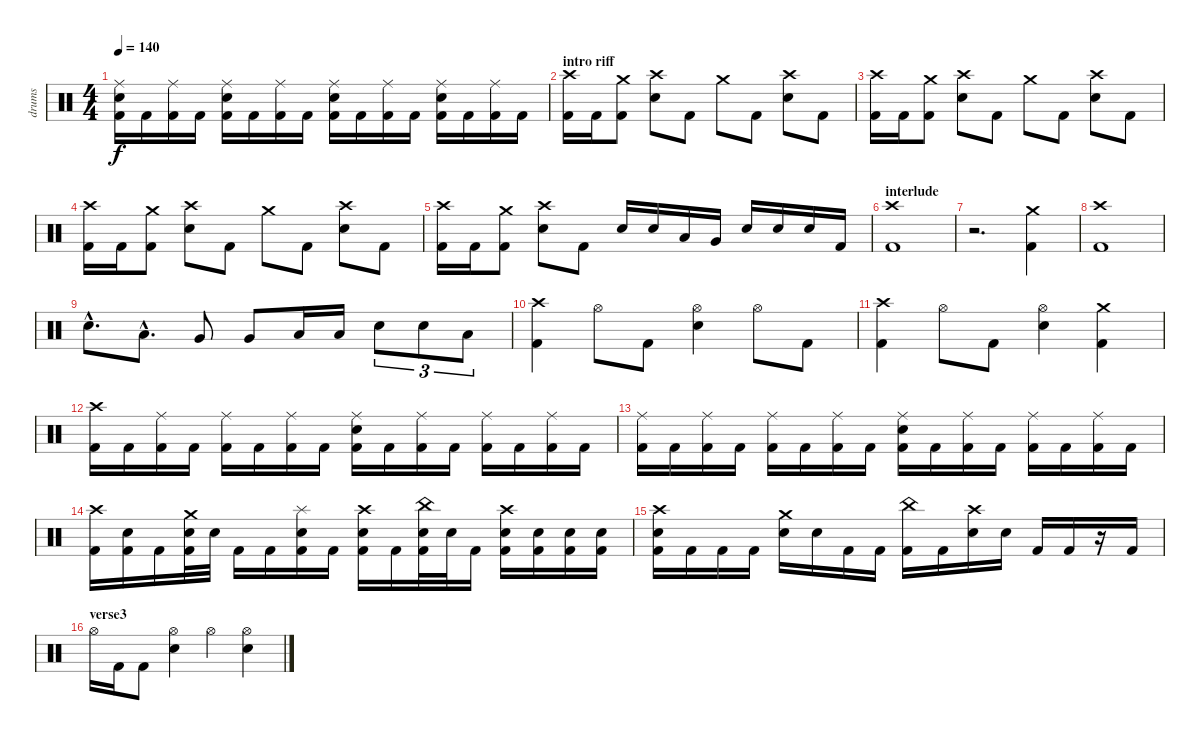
\track ("drums" "drums") {instrument percussion}
\staff {score}
\articulation defaults
\ts (4 4)
\tempo 140
\clef neutral
\ks c
("Ride (middle)" "Electric Snare (hit)" "Kick (hit) 2").16{dy f} "Kick (hit) 2".16 ("Ride (middle)" "Kick (hit) 2").16 "Kick (hit) 2".16 ("Ride (middle)" "Electric Snare (hit)" "Kick (hit) 2").16 "Kick (hit) 2".16 ("Ride (middle)" "Kick (hit) 2").16 "Kick (hit) 2".16 ("Ride (middle)" "Electric Snare (hit)" "Kick (hit) 2").16 "Kick (hit) 2".16 ("Ride (middle)" "Kick (hit) 2").16 "Kick (hit) 2".16 ("Ride (middle)" "Electric Snare (hit)" "Kick (hit) 2").16 "Kick (hit) 2".16 ("Ride (middle)" "Kick (hit) 2").16 "Kick (hit) 2".16 |
\section ("" "intro riff")
("Crash high (hit)" "Kick (hit) 2").16 "Kick (hit) 2".16 ("Crash medium (hit)" "Kick (hit) 2").8 ("Crash high (hit)" "Electric Snare (hit)").8 "Kick (hit) 2".8 "Crash medium (hit)".8 "Kick (hit) 2".8 ("Crash high (hit)" "Electric Snare (hit)").8 "Kick (hit) 2".8 |
("Crash high (hit)" "Kick (hit) 2").16 "Kick (hit) 2".16 ("Crash medium (hit)" "Kick (hit) 2").8 ("Crash high (hit)" "Electric Snare (hit)").8 "Kick (hit) 2".8 "Crash medium (hit)".8 "Kick (hit) 2".8 ("Crash high (hit)" "Electric Snare (hit)").8 "Kick (hit) 2".8 |
("Crash high (hit)" "Kick (hit) 2").16 "Kick (hit) 2".16 ("Crash medium (hit)" "Kick (hit) 2").8 ("Crash high (hit)" "Electric Snare (hit)").8 "Kick (hit) 2".8 "Crash medium (hit)".8 "Kick (hit) 2".8 ("Crash high (hit)" "Electric Snare (hit)").8 "Kick (hit) 2".8 |
("Crash high (hit)" "Kick (hit) 2").16 "Kick (hit) 2".16 ("Crash medium (hit)" "Kick (hit) 2").8 ("Crash high (hit)" "Electric Snare (hit)").8 "Kick (hit) 2".8 "Electric Snare (hit)".16 "Electric Snare (hit)".16 "Low Tom (hit)".16 "Very Low Tom (hit)".16 "Electric Snare (hit)".16 "Electric Snare (hit)".16 "Electric Snare (hit)".16 "Kick (hit) 2".16 |
\section ("" "interlude")
("Crash high (hit)" "Kick (hit) 2").1 |
r.2{d} ("Crash medium (hit)" "Kick (hit) 2").4 |
("Crash high (hit)" "Kick (hit) 2").1 |
"Electric Snare (hit)"{hac}.8{d} "Low Tom (hit)"{hac}.8{d} "Very Low Tom (hit)".8 "Very Low Tom (hit)".8 "Low Tom (hit)".16 "Low Tom (hit)".16 "Electric Snare (hit)".8{tu (3 2)} "Electric Snare (hit)".8{tu (3 2)} "Low Tom (hit)".8{tu (3 2)} |
("Crash high (hit)" "Kick (hit) 2").4 "Hi-Hat (open)".8 "Kick (hit) 2".8 ("Hi-Hat (open)" "Electric Snare (hit)").4 "Hi-Hat (open)".8 "Kick (hit) 2".8 |
("Crash high (hit)" "Kick (hit) 2").4 "Hi-Hat (open)".8 "Kick (hit) 2".8 ("Hi-Hat (open)" "Electric Snare (hit)").4 ("Crash medium (hit)" "Kick (hit) 2").4 |
("Crash high (hit)" "Kick (hit) 2").16 "Kick (hit) 2".16 ("Ride (middle)" "Kick (hit) 2").16 "Kick (hit) 2".16 ("Ride (middle)" "Kick (hit) 2").16 "Kick (hit) 2".16 ("Ride (middle)" "Kick (hit) 2").16 "Kick (hit) 2".16 ("Ride (middle)" "Electric Snare (hit)" "Kick (hit) 2").16 "Kick (hit) 2".16 ("Ride (middle)" "Kick (hit) 2").16 "Kick (hit) 2".16 ("Ride (middle)" "Kick (hit) 2").16 "Kick (hit) 2".16 ("Ride (middle)" "Kick (hit) 2").16 "Kick (hit) 2".16 |
("Ride (middle)" "Kick (hit) 2").16 "Kick (hit) 2".16 ("Ride (middle)" "Kick (hit) 2").16 "Kick (hit) 2".16 ("Ride (middle)" "Kick (hit) 2").16 "Kick (hit) 2".16 ("Ride (middle)" "Kick (hit) 2").16 "Kick (hit) 2".16 ("Ride (middle)" "Electric Snare (hit)" "Kick (hit) 2").16 "Kick (hit) 2".16 ("Ride (middle)" "Kick (hit) 2").16 "Kick (hit) 2".16 ("Ride (middle)" "Kick (hit) 2").16 "Kick (hit) 2".16 ("Ride (middle)" "Kick (hit) 2").16 "Kick (hit) 2".16 |
("Crash high (hit)" "Kick (hit) 2").16 ("Electric Snare (hit)" "Kick (hit) 2").16 "Kick (hit) 2".16 ("Crash medium (hit)" "Electric Snare (hit)" "Kick (hit) 2").32 "Electric Snare (hit)".32 "Kick (hit) 2".16 "Kick (hit) 2".16 ("Splash (hit)" "Electric Snare (hit)" "Kick (hit) 2").16 "Kick (hit) 2".16 ("Crash high (hit)" "Electric Snare (hit)" "Kick (hit) 2").16 "Kick (hit) 2".16 ("China (hit)" "Electric Snare (hit)" "Kick (hit) 2").32 "Electric Snare (hit)".32 "Kick (hit) 2".16 ("Crash high (hit)" "Electric Snare (hit)" "Kick (hit) 2").16 ("Electric Snare (hit)" "Kick (hit) 2").16 ("Electric Snare (hit)" "Kick (hit) 2").16 ("Electric Snare (hit)" "Kick (hit) 2").16 |
("Crash high (hit)" "Electric Snare (hit)" "Kick (hit) 2").16 "Kick (hit) 2".16 "Kick (hit) 2".16 "Kick (hit) 2".16 ("Crash medium (hit)" "Electric Snare (hit)").16 "Electric Snare (hit)".16 "Kick (hit) 2".16 "Kick (hit) 2".16 ("China (hit)" "Kick (hit) 2").16 "Kick (hit) 2".16 ("Crash high (hit)" "Electric Snare (hit)").16 "Electric Snare (hit)".16 "Kick (hit) 2".16 "Kick (hit) 2".16 r.16 "Kick (hit) 2".16 |
\section ("" "verse3")
"Hi-Hat (open)".16 "Kick (hit) 2".16 "Kick (hit) 2".8 ("Hi-Hat (open)" "Electric Snare (hit)").4 "Hi-Hat (open)".4 ("Hi-Hat (open)" "Electric Snare (hit)").4
